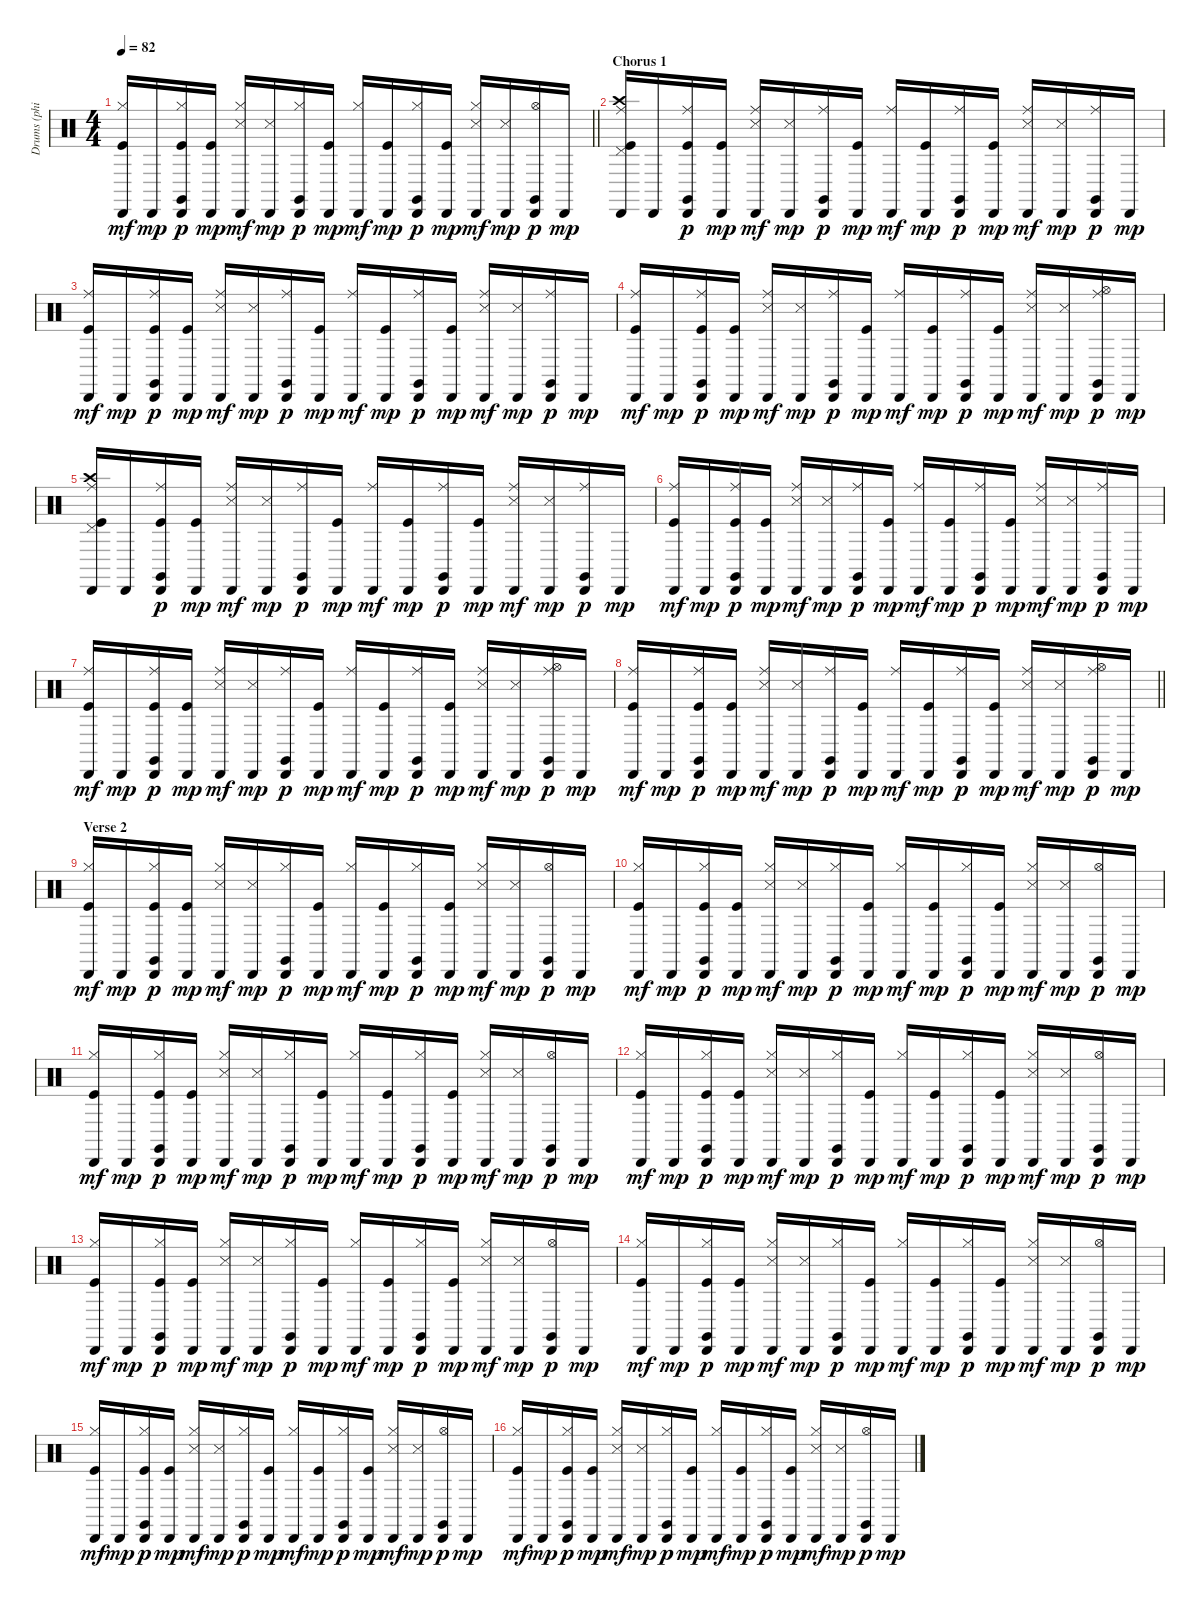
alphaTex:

\track ("Drums (phil)" "Drums (phi") {instrument percussion}
\staff {score}
\articulation defaults
\ts (4 4)
\tempo 82
\clef neutral
\barLineRight lightlight
\ks c
("Hi-Hat (closed)" "Cabasa (hit)" "Kick (hit)").16{dy mf} "Cabasa (hit)".16{dy mp} ("Hi-Hat (closed)" "Cabasa (hit)" "Claves (hit)" "Kick (hit)").16{dy p} ("Cabasa (hit)" "Kick (hit)").16{dy mp} ("Hi-Hat (closed)" "Cabasa (hit)" "Snare (side stick) 3").16{dy mf} ("Cabasa (hit)" "Snare (side stick) 3").16{dy mp} ("Hi-Hat (closed)" "Cabasa (hit)" "Claves (hit)").16{dy p} ("Cabasa (hit)" "Kick (hit)").16{dy mp} ("Hi-Hat (closed)" "Cabasa (hit)").16{dy mf} ("Cabasa (hit)" "Kick (hit)").16{dy mp} ("Hi-Hat (closed)" "Cabasa (hit)" "Claves (hit)").16{dy p} ("Cabasa (hit)" "Kick (hit)").16{dy mp} ("Hi-Hat (closed)" "Cabasa (hit)" "Snare (side stick) 3").16{dy mf} ("Cabasa (hit)" "Snare (side stick) 3").16{dy mp} ("Hi-Hat (open)" "Cabasa (hit)" "Claves (hit)").16{dy p} "Cabasa (hit)".16{dy mp} |
\section ("" "Chorus 1")
("Ride (middle)" "Cabasa (hit)" "Crash high (hit)" "Pedal Hi-Hat (hit)" "Kick (hit)").16 "Cabasa (hit)".16 ("Ride (middle)" "Cabasa (hit)" "Claves (hit)" "Kick (hit)").16{dy p} ("Cabasa (hit)" "Kick (hit)").16{dy mp} ("Ride (middle)" "Cabasa (hit)" "Snare (side stick) 3").16{dy mf} ("Cabasa (hit)" "Snare (side stick) 3").16{dy mp} ("Ride (middle)" "Cabasa (hit)" "Claves (hit)").16{dy p} ("Cabasa (hit)" "Kick (hit)").16{dy mp} ("Ride (middle)" "Cabasa (hit)").16{dy mf} ("Cabasa (hit)" "Kick (hit)").16{dy mp} ("Ride (middle)" "Cabasa (hit)" "Claves (hit)").16{dy p} ("Cabasa (hit)" "Kick (hit)").16{dy mp} ("Ride (middle)" "Cabasa (hit)" "Snare (side stick) 3").16{dy mf} ("Cabasa (hit)" "Snare (side stick) 3").16{dy mp} ("Ride (middle)" "Cabasa (hit)" "Claves (hit)").16{dy p} "Cabasa (hit)".16{dy mp} |
("Ride (middle)" "Cabasa (hit)" "Kick (hit)").16{dy mf} "Cabasa (hit)".16{dy mp} ("Ride (middle)" "Cabasa (hit)" "Claves (hit)" "Kick (hit)").16{dy p} ("Cabasa (hit)" "Kick (hit)").16{dy mp} ("Ride (middle)" "Cabasa (hit)" "Snare (side stick) 3").16{dy mf} ("Cabasa (hit)" "Snare (side stick) 3").16{dy mp} ("Ride (middle)" "Cabasa (hit)" "Claves (hit)").16{dy p} ("Cabasa (hit)" "Kick (hit)").16{dy mp} ("Ride (middle)" "Cabasa (hit)").16{dy mf} ("Cabasa (hit)" "Kick (hit)").16{dy mp} ("Ride (middle)" "Cabasa (hit)" "Claves (hit)").16{dy p} ("Cabasa (hit)" "Kick (hit)").16{dy mp} ("Ride (middle)" "Cabasa (hit)" "Snare (side stick) 3").16{dy mf} ("Cabasa (hit)" "Snare (side stick) 3").16{dy mp} ("Ride (middle)" "Cabasa (hit)" "Claves (hit)").16{dy p} "Cabasa (hit)".16{dy mp} |
("Ride (middle)" "Cabasa (hit)" "Kick (hit)").16{dy mf} "Cabasa (hit)".16{dy mp} ("Ride (middle)" "Cabasa (hit)" "Claves (hit)" "Kick (hit)").16{dy p} ("Cabasa (hit)" "Kick (hit)").16{dy mp} ("Ride (middle)" "Cabasa (hit)" "Snare (side stick) 3").16{dy mf} ("Cabasa (hit)" "Snare (side stick) 3").16{dy mp} ("Ride (middle)" "Cabasa (hit)" "Claves (hit)").16{dy p} ("Cabasa (hit)" "Kick (hit)").16{dy mp} ("Ride (middle)" "Cabasa (hit)").16{dy mf} ("Cabasa (hit)" "Kick (hit)").16{dy mp} ("Ride (middle)" "Cabasa (hit)" "Claves (hit)").16{dy p} ("Cabasa (hit)" "Kick (hit)").16{dy mp} ("Ride (middle)" "Cabasa (hit)" "Snare (side stick) 3").16{dy mf} ("Cabasa (hit)" "Snare (side stick) 3").16{dy mp} ("Ride (middle)" "Cabasa (hit)" "Claves (hit)" "Hi-Hat (open)").16{dy p} "Cabasa (hit)".16{dy mp} |
("Ride (middle)" "Cabasa (hit)" "Crash high (hit)" "Pedal Hi-Hat (hit)" "Kick (hit)").16 "Cabasa (hit)".16 ("Ride (middle)" "Cabasa (hit)" "Claves (hit)" "Kick (hit)").16{dy p} ("Cabasa (hit)" "Kick (hit)").16{dy mp} ("Ride (middle)" "Cabasa (hit)" "Snare (side stick) 3").16{dy mf} ("Cabasa (hit)" "Snare (side stick) 3").16{dy mp} ("Ride (middle)" "Cabasa (hit)" "Claves (hit)").16{dy p} ("Cabasa (hit)" "Kick (hit)").16{dy mp} ("Ride (middle)" "Cabasa (hit)").16{dy mf} ("Cabasa (hit)" "Kick (hit)").16{dy mp} ("Ride (middle)" "Cabasa (hit)" "Claves (hit)").16{dy p} ("Cabasa (hit)" "Kick (hit)").16{dy mp} ("Ride (middle)" "Cabasa (hit)" "Snare (side stick) 3").16{dy mf} ("Cabasa (hit)" "Snare (side stick) 3").16{dy mp} ("Ride (middle)" "Cabasa (hit)" "Claves (hit)").16{dy p} "Cabasa (hit)".16{dy mp} |
("Ride (middle)" "Cabasa (hit)" "Kick (hit)").16{dy mf} "Cabasa (hit)".16{dy mp} ("Ride (middle)" "Cabasa (hit)" "Claves (hit)" "Kick (hit)").16{dy p} ("Cabasa (hit)" "Kick (hit)").16{dy mp} ("Ride (middle)" "Cabasa (hit)" "Snare (side stick) 3").16{dy mf} ("Cabasa (hit)" "Snare (side stick) 3").16{dy mp} ("Ride (middle)" "Cabasa (hit)" "Claves (hit)").16{dy p} ("Cabasa (hit)" "Kick (hit)").16{dy mp} ("Ride (middle)" "Cabasa (hit)").16{dy mf} ("Cabasa (hit)" "Kick (hit)").16{dy mp} ("Ride (middle)" "Cabasa (hit)" "Claves (hit)").16{dy p} ("Cabasa (hit)" "Kick (hit)").16{dy mp} ("Ride (middle)" "Cabasa (hit)" "Snare (side stick) 3").16{dy mf} ("Cabasa (hit)" "Snare (side stick) 3").16{dy mp} ("Ride (middle)" "Cabasa (hit)" "Claves (hit)").16{dy p} "Cabasa (hit)".16{dy mp} |
("Ride (middle)" "Cabasa (hit)" "Kick (hit)").16{dy mf} "Cabasa (hit)".16{dy mp} ("Ride (middle)" "Cabasa (hit)" "Claves (hit)" "Kick (hit)").16{dy p} ("Cabasa (hit)" "Kick (hit)").16{dy mp} ("Ride (middle)" "Cabasa (hit)" "Snare (side stick) 3").16{dy mf} ("Cabasa (hit)" "Snare (side stick) 3").16{dy mp} ("Ride (middle)" "Cabasa (hit)" "Claves (hit)").16{dy p} ("Cabasa (hit)" "Kick (hit)").16{dy mp} ("Ride (middle)" "Cabasa (hit)").16{dy mf} ("Cabasa (hit)" "Kick (hit)").16{dy mp} ("Ride (middle)" "Cabasa (hit)" "Claves (hit)").16{dy p} ("Cabasa (hit)" "Kick (hit)").16{dy mp} ("Ride (middle)" "Cabasa (hit)" "Snare (side stick) 3").16{dy mf} ("Cabasa (hit)" "Snare (side stick) 3").16{dy mp} ("Ride (middle)" "Cabasa (hit)" "Claves (hit)" "Hi-Hat (open)").16{dy p} "Cabasa (hit)".16{dy mp} |
\barLineRight lightlight
("Ride (middle)" "Cabasa (hit)" "Kick (hit)").16{dy mf} "Cabasa (hit)".16{dy mp} ("Ride (middle)" "Cabasa (hit)" "Claves (hit)" "Kick (hit)").16{dy p} ("Cabasa (hit)" "Kick (hit)").16{dy mp} ("Ride (middle)" "Cabasa (hit)" "Snare (side stick) 3").16{dy mf} ("Cabasa (hit)" "Snare (side stick) 3").16{dy mp} ("Ride (middle)" "Cabasa (hit)" "Claves (hit)").16{dy p} ("Cabasa (hit)" "Kick (hit)").16{dy mp} ("Ride (middle)" "Cabasa (hit)").16{dy mf} ("Cabasa (hit)" "Kick (hit)").16{dy mp} ("Ride (middle)" "Cabasa (hit)" "Claves (hit)").16{dy p} ("Cabasa (hit)" "Kick (hit)").16{dy mp} ("Ride (middle)" "Cabasa (hit)" "Snare (side stick) 3").16{dy mf} ("Cabasa (hit)" "Snare (side stick) 3").16{dy mp} ("Ride (middle)" "Cabasa (hit)" "Claves (hit)" "Hi-Hat (open)").16{dy p} "Cabasa (hit)".16{dy mp} |
\section ("" "Verse 2")
("Hi-Hat (closed)" "Cabasa (hit)" "Kick (hit)").16{dy mf} "Cabasa (hit)".16{dy mp} ("Hi-Hat (closed)" "Cabasa (hit)" "Claves (hit)" "Kick (hit)").16{dy p} ("Cabasa (hit)" "Kick (hit)").16{dy mp} ("Hi-Hat (closed)" "Cabasa (hit)" "Snare (side stick) 3").16{dy mf} ("Cabasa (hit)" "Snare (side stick) 3").16{dy mp} ("Hi-Hat (closed)" "Cabasa (hit)" "Claves (hit)").16{dy p} ("Cabasa (hit)" "Kick (hit)").16{dy mp} ("Hi-Hat (closed)" "Cabasa (hit)").16{dy mf} ("Cabasa (hit)" "Kick (hit)").16{dy mp} ("Hi-Hat (closed)" "Cabasa (hit)" "Claves (hit)").16{dy p} ("Cabasa (hit)" "Kick (hit)").16{dy mp} ("Hi-Hat (closed)" "Cabasa (hit)" "Snare (side stick) 3").16{dy mf} ("Cabasa (hit)" "Snare (side stick) 3").16{dy mp} ("Hi-Hat (open)" "Cabasa (hit)" "Claves (hit)").16{dy p} "Cabasa (hit)".16{dy mp} |
("Hi-Hat (closed)" "Cabasa (hit)" "Kick (hit)").16{dy mf} "Cabasa (hit)".16{dy mp} ("Hi-Hat (closed)" "Cabasa (hit)" "Claves (hit)" "Kick (hit)").16{dy p} ("Cabasa (hit)" "Kick (hit)").16{dy mp} ("Hi-Hat (closed)" "Cabasa (hit)" "Snare (side stick) 3").16{dy mf} ("Cabasa (hit)" "Snare (side stick) 3").16{dy mp} ("Hi-Hat (closed)" "Cabasa (hit)" "Claves (hit)").16{dy p} ("Cabasa (hit)" "Kick (hit)").16{dy mp} ("Hi-Hat (closed)" "Cabasa (hit)").16{dy mf} ("Cabasa (hit)" "Kick (hit)").16{dy mp} ("Hi-Hat (closed)" "Cabasa (hit)" "Claves (hit)").16{dy p} ("Cabasa (hit)" "Kick (hit)").16{dy mp} ("Hi-Hat (closed)" "Cabasa (hit)" "Snare (side stick) 3").16{dy mf} ("Cabasa (hit)" "Snare (side stick) 3").16{dy mp} ("Hi-Hat (open)" "Cabasa (hit)" "Claves (hit)").16{dy p} "Cabasa (hit)".16{dy mp} |
("Hi-Hat (closed)" "Cabasa (hit)" "Kick (hit)").16{dy mf} "Cabasa (hit)".16{dy mp} ("Hi-Hat (closed)" "Cabasa (hit)" "Claves (hit)" "Kick (hit)").16{dy p} ("Cabasa (hit)" "Kick (hit)").16{dy mp} ("Hi-Hat (closed)" "Cabasa (hit)" "Snare (side stick) 3").16{dy mf} ("Cabasa (hit)" "Snare (side stick) 3").16{dy mp} ("Hi-Hat (closed)" "Cabasa (hit)" "Claves (hit)").16{dy p} ("Cabasa (hit)" "Kick (hit)").16{dy mp} ("Hi-Hat (closed)" "Cabasa (hit)").16{dy mf} ("Cabasa (hit)" "Kick (hit)").16{dy mp} ("Hi-Hat (closed)" "Cabasa (hit)" "Claves (hit)").16{dy p} ("Cabasa (hit)" "Kick (hit)").16{dy mp} ("Hi-Hat (closed)" "Cabasa (hit)" "Snare (side stick) 3").16{dy mf} ("Cabasa (hit)" "Snare (side stick) 3").16{dy mp} ("Hi-Hat (open)" "Cabasa (hit)" "Claves (hit)").16{dy p} "Cabasa (hit)".16{dy mp} |
("Hi-Hat (closed)" "Cabasa (hit)" "Kick (hit)").16{dy mf} "Cabasa (hit)".16{dy mp} ("Hi-Hat (closed)" "Cabasa (hit)" "Claves (hit)" "Kick (hit)").16{dy p} ("Cabasa (hit)" "Kick (hit)").16{dy mp} ("Hi-Hat (closed)" "Cabasa (hit)" "Snare (side stick) 3").16{dy mf} ("Cabasa (hit)" "Snare (side stick) 3").16{dy mp} ("Hi-Hat (closed)" "Cabasa (hit)" "Claves (hit)").16{dy p} ("Cabasa (hit)" "Kick (hit)").16{dy mp} ("Hi-Hat (closed)" "Cabasa (hit)").16{dy mf} ("Cabasa (hit)" "Kick (hit)").16{dy mp} ("Hi-Hat (closed)" "Cabasa (hit)" "Claves (hit)").16{dy p} ("Cabasa (hit)" "Kick (hit)").16{dy mp} ("Hi-Hat (closed)" "Cabasa (hit)" "Snare (side stick) 3").16{dy mf} ("Cabasa (hit)" "Snare (side stick) 3").16{dy mp} ("Hi-Hat (open)" "Cabasa (hit)" "Claves (hit)").16{dy p} "Cabasa (hit)".16{dy mp} |
("Hi-Hat (closed)" "Cabasa (hit)" "Kick (hit)").16{dy mf} "Cabasa (hit)".16{dy mp} ("Hi-Hat (closed)" "Cabasa (hit)" "Claves (hit)" "Kick (hit)").16{dy p} ("Cabasa (hit)" "Kick (hit)").16{dy mp} ("Hi-Hat (closed)" "Cabasa (hit)" "Snare (side stick) 3").16{dy mf} ("Cabasa (hit)" "Snare (side stick) 3").16{dy mp} ("Hi-Hat (closed)" "Cabasa (hit)" "Claves (hit)").16{dy p} ("Cabasa (hit)" "Kick (hit)").16{dy mp} ("Hi-Hat (closed)" "Cabasa (hit)").16{dy mf} ("Cabasa (hit)" "Kick (hit)").16{dy mp} ("Hi-Hat (closed)" "Cabasa (hit)" "Claves (hit)").16{dy p} ("Cabasa (hit)" "Kick (hit)").16{dy mp} ("Hi-Hat (closed)" "Cabasa (hit)" "Snare (side stick) 3").16{dy mf} ("Cabasa (hit)" "Snare (side stick) 3").16{dy mp} ("Hi-Hat (open)" "Cabasa (hit)" "Claves (hit)").16{dy p} "Cabasa (hit)".16{dy mp} |
("Hi-Hat (closed)" "Cabasa (hit)" "Kick (hit)").16{dy mf} "Cabasa (hit)".16{dy mp} ("Hi-Hat (closed)" "Cabasa (hit)" "Claves (hit)" "Kick (hit)").16{dy p} ("Cabasa (hit)" "Kick (hit)").16{dy mp} ("Hi-Hat (closed)" "Cabasa (hit)" "Snare (side stick) 3").16{dy mf} ("Cabasa (hit)" "Snare (side stick) 3").16{dy mp} ("Hi-Hat (closed)" "Cabasa (hit)" "Claves (hit)").16{dy p} ("Cabasa (hit)" "Kick (hit)").16{dy mp} ("Hi-Hat (closed)" "Cabasa (hit)").16{dy mf} ("Cabasa (hit)" "Kick (hit)").16{dy mp} ("Hi-Hat (closed)" "Cabasa (hit)" "Claves (hit)").16{dy p} ("Cabasa (hit)" "Kick (hit)").16{dy mp} ("Hi-Hat (closed)" "Cabasa (hit)" "Snare (side stick) 3").16{dy mf} ("Cabasa (hit)" "Snare (side stick) 3").16{dy mp} ("Hi-Hat (open)" "Cabasa (hit)" "Claves (hit)").16{dy p} "Cabasa (hit)".16{dy mp} |
("Hi-Hat (closed)" "Cabasa (hit)" "Kick (hit)").16{dy mf} "Cabasa (hit)".16{dy mp} ("Hi-Hat (closed)" "Cabasa (hit)" "Claves (hit)" "Kick (hit)").16{dy p} ("Cabasa (hit)" "Kick (hit)").16{dy mp} ("Hi-Hat (closed)" "Cabasa (hit)" "Snare (side stick) 3").16{dy mf} ("Cabasa (hit)" "Snare (side stick) 3").16{dy mp} ("Hi-Hat (closed)" "Cabasa (hit)" "Claves (hit)").16{dy p} ("Cabasa (hit)" "Kick (hit)").16{dy mp} ("Hi-Hat (closed)" "Cabasa (hit)").16{dy mf} ("Cabasa (hit)" "Kick (hit)").16{dy mp} ("Hi-Hat (closed)" "Cabasa (hit)" "Claves (hit)").16{dy p} ("Cabasa (hit)" "Kick (hit)").16{dy mp} ("Hi-Hat (closed)" "Cabasa (hit)" "Snare (side stick) 3").16{dy mf} ("Cabasa (hit)" "Snare (side stick) 3").16{dy mp} ("Hi-Hat (open)" "Cabasa (hit)" "Claves (hit)").16{dy p} "Cabasa (hit)".16{dy mp} |
("Hi-Hat (closed)" "Cabasa (hit)" "Kick (hit)").16{dy mf} "Cabasa (hit)".16{dy mp} ("Hi-Hat (closed)" "Cabasa (hit)" "Claves (hit)" "Kick (hit)").16{dy p} ("Cabasa (hit)" "Kick (hit)").16{dy mp} ("Hi-Hat (closed)" "Cabasa (hit)" "Snare (side stick) 3").16{dy mf} ("Cabasa (hit)" "Snare (side stick) 3").16{dy mp} ("Hi-Hat (closed)" "Cabasa (hit)" "Claves (hit)").16{dy p} ("Cabasa (hit)" "Kick (hit)").16{dy mp} ("Hi-Hat (closed)" "Cabasa (hit)").16{dy mf} ("Cabasa (hit)" "Kick (hit)").16{dy mp} ("Hi-Hat (closed)" "Cabasa (hit)" "Claves (hit)").16{dy p} ("Cabasa (hit)" "Kick (hit)").16{dy mp} ("Hi-Hat (closed)" "Cabasa (hit)" "Snare (side stick) 3").16{dy mf} ("Cabasa (hit)" "Snare (side stick) 3").16{dy mp} ("Hi-Hat (open)" "Cabasa (hit)" "Claves (hit)").16{dy p} "Cabasa (hit)".16{dy mp}
